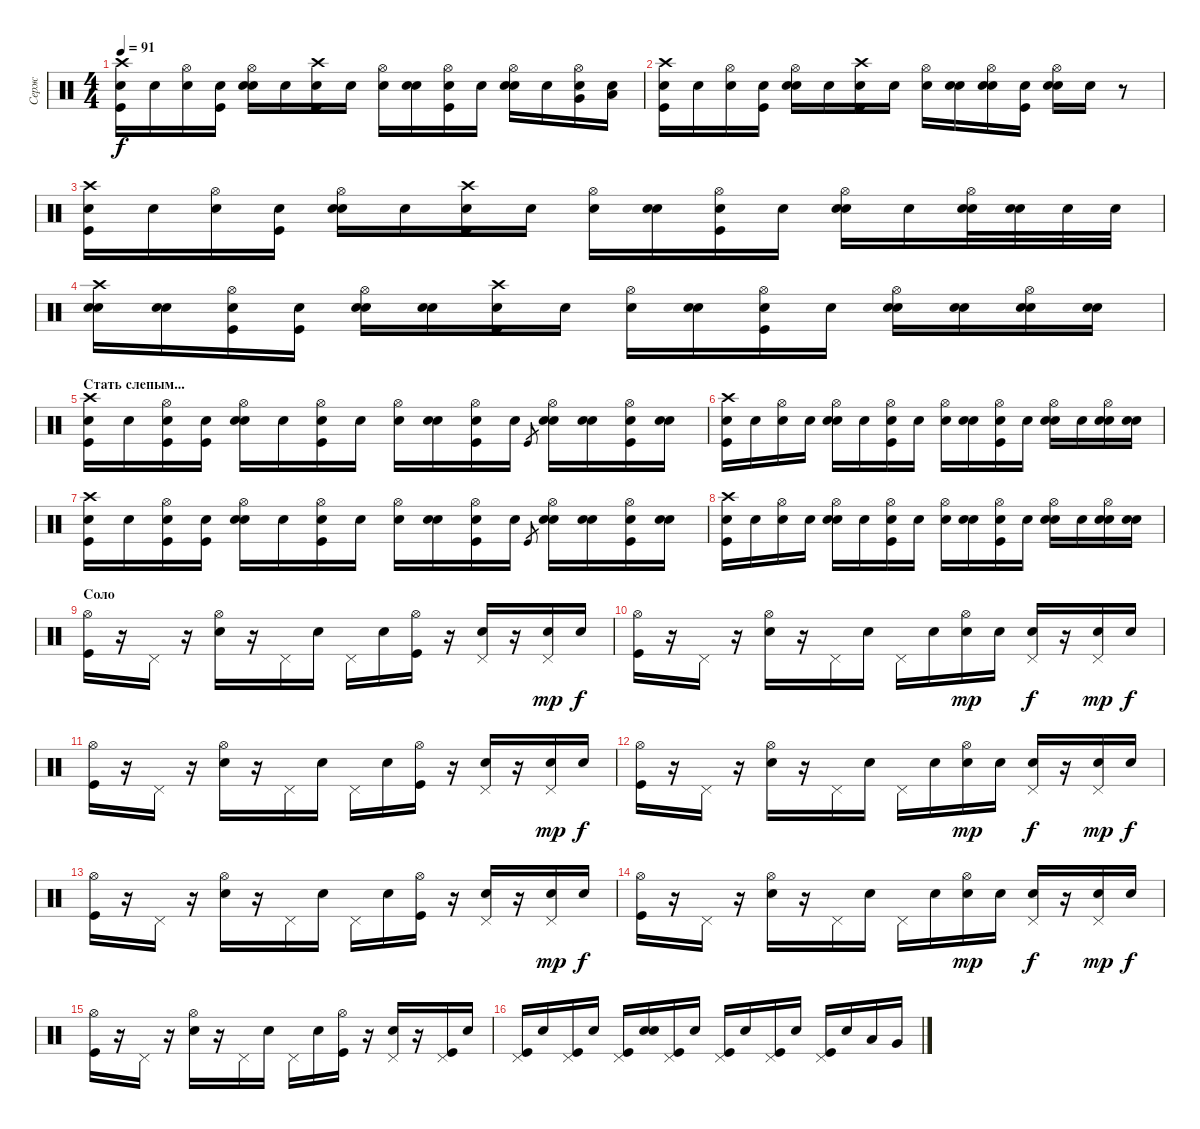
\track ("Серж" "Серж") {instrument percussion}
\staff {score}
\articulation defaults
\ts (4 4)
\tempo 91
\clef neutral
\ks c
("Crash high (hit)" "Kick (hit)" "Snare (hit)"{x}).16{dy f} "Snare (hit)"{x}.16 ("Hi-Hat (open)" "Snare (hit)"{x}).16 ("Kick (hit)" "Snare (hit)"{x}).16 ("Snare (hit) 2" "Hi-Hat (open)" "Snare (hit)"{x}).16 "Snare (hit)"{x}.16 ("Crash high (hit)" "Kick (hit)" "Snare (hit)"{x}).16 "Snare (hit)"{x}.16 ("Hi-Hat (open)" "Snare (hit)"{x}).16 ("Snare (hit) 2" "Snare (hit)"{x}).16 ("Kick (hit)" "Hi-Hat (open)" "Snare (hit)"{x}).16 "Snare (hit)"{x}.16 ("Snare (hit) 2" "Hi-Hat (open)" "Snare (hit)"{x}).16 "Snare (hit)"{x}.16 ("Very Low Tom (hit)" "Hi-Hat (open)" "Snare (hit)"{x}).16 ("Low Floor Tom (hit)" "Snare (hit)"{x}).16 |
("Crash high (hit)" "Kick (hit)" "Snare (hit)"{x}).16 "Snare (hit)"{x}.16 ("Hi-Hat (open)" "Snare (hit)"{x}).16 ("Kick (hit)" "Snare (hit)"{x}).16 ("Snare (hit) 2" "Hi-Hat (open)" "Snare (hit)"{x}).16 "Snare (hit)"{x}.16 ("Crash high (hit)" "Kick (hit)" "Snare (hit)"{x}).16 "Snare (hit)"{x}.16 ("Hi-Hat (open)" "Snare (hit)"{x}).16 ("Snare (hit) 2" "Snare (hit)"{x}).16 ("Snare (hit) 2" "Hi-Hat (open)" "Snare (hit)"{x}).16 ("Kick (hit)" "Snare (hit)"{x}).16 ("Snare (hit) 2" "Hi-Hat (open)" "Snare (hit)"{x}).16 "Snare (hit)"{x}.16 r.8 |
("Crash high (hit)" "Kick (hit)" "Snare (hit)"{x}).16 "Snare (hit)"{x}.16 ("Hi-Hat (open)" "Snare (hit)"{x}).16 ("Kick (hit)" "Snare (hit)"{x}).16 ("Snare (hit) 2" "Hi-Hat (open)" "Snare (hit)"{x}).16 "Snare (hit)"{x}.16 ("Crash high (hit)" "Kick (hit)" "Snare (hit)"{x}).16 "Snare (hit)"{x}.16 ("Hi-Hat (open)" "Snare (hit)"{x}).16 ("Snare (hit) 2" "Snare (hit)"{x}).16 ("Kick (hit)" "Hi-Hat (open)" "Snare (hit)"{x}).16 "Snare (hit)"{x}.16 ("Snare (hit) 2" "Hi-Hat (open)" "Snare (hit)"{x}).16 "Snare (hit)"{x}.16 ("Electric Snare (hit)" "Hi-Hat (open)" "Snare (hit)"{x}).32 ("Electric Snare (hit)" "Snare (hit)"{x}).32 "Electric Snare (hit)".32 "Electric Snare (hit)".32 |
("Crash high (hit)" "Electric Snare (hit)" "Snare (hit)"{x}).16 ("Electric Snare (hit)" "Snare (hit)"{x}).16 ("Kick (hit)" "Hi-Hat (open)" "Snare (hit)"{x}).16 ("Kick (hit)" "Snare (hit)"{x}).16 ("Snare (hit) 2" "Hi-Hat (open)" "Snare (hit)"{x}).16 ("Electric Snare (hit)" "Snare (hit)"{x}).16 ("Crash high (hit)" "Kick (hit)" "Snare (hit)"{x}).16 "Snare (hit)"{x}.16 ("Hi-Hat (open)" "Snare (hit)"{x}).16 ("Snare (hit) 2" "Snare (hit)"{x}).16 ("Kick (hit)" "Hi-Hat (open)" "Snare (hit)"{x}).16 "Snare (hit)"{x}.16 ("Snare (hit) 2" "Hi-Hat (open)" "Snare (hit)"{x}).16 ("Snare (hit) 2" "Snare (hit)"{x}).16 ("Snare (hit) 2" "Hi-Hat (open)" "Snare (hit)"{x}).16 ("Snare (hit) 2" "Snare (hit)"{x}).16 |
\section ("" "Стать слепым...")
("Crash high (hit)" "Kick (hit)" "Snare (hit)"{x}).16 "Snare (hit)"{x}.16 ("Kick (hit)" "Hi-Hat (open)" "Snare (hit)"{x}).16 ("Kick (hit)" "Snare (hit)"{x}).16 ("Snare (hit) 2" "Hi-Hat (open)" "Snare (hit)"{x}).16 "Snare (hit)"{x}.16 ("Kick (hit)" "Hi-Hat (open)" "Snare (hit)"{x}).16 "Snare (hit)"{x}.16 ("Hi-Hat (open)" "Snare (hit)"{x}).16 ("Snare (hit) 2" "Snare (hit)"{x}).16 ("Kick (hit)" "Hi-Hat (open)" "Snare (hit)"{x}).16 "Snare (hit)"{x}.16 "Kick (hit)".8{gr} ("Snare (hit) 2" "Hi-Hat (open)" "Snare (hit)"{x}).16 ("Snare (hit) 2" "Snare (hit)"{x}).16 ("Kick (hit)" "Hi-Hat (open)" "Snare (hit)"{x}).16 ("Snare (hit) 2" "Snare (hit)"{x}).16 |
("Crash high (hit)" "Kick (hit)" "Snare (hit)"{x}).16 "Snare (hit)"{x}.16 ("Hi-Hat (open)" "Snare (hit)"{x}).16 "Snare (hit)"{x}.16 ("Snare (hit) 2" "Hi-Hat (open)" "Snare (hit)"{x}).16 "Snare (hit)"{x}.16 ("Kick (hit)" "Hi-Hat (open)" "Snare (hit)"{x}).16 "Snare (hit)"{x}.16 ("Hi-Hat (open)" "Snare (hit)"{x}).16 ("Snare (hit) 2" "Snare (hit)"{x}).16 ("Kick (hit)" "Hi-Hat (open)" "Snare (hit)"{x}).16 "Snare (hit)"{x}.16 ("Snare (hit) 2" "Hi-Hat (open)" "Snare (hit)"{x}).16 "Snare (hit)"{x}.16 ("Snare (hit) 2" "Hi-Hat (open)" "Snare (hit)"{x}).16 ("Snare (hit) 2" "Snare (hit)"{x}).16 |
("Crash high (hit)" "Kick (hit)" "Snare (hit)"{x}).16 "Snare (hit)"{x}.16 ("Kick (hit)" "Hi-Hat (open)" "Snare (hit)"{x}).16 ("Kick (hit)" "Snare (hit)"{x}).16 ("Snare (hit) 2" "Hi-Hat (open)" "Snare (hit)"{x}).16 "Snare (hit)"{x}.16 ("Kick (hit)" "Hi-Hat (open)" "Snare (hit)"{x}).16 "Snare (hit)"{x}.16 ("Hi-Hat (open)" "Snare (hit)"{x}).16 ("Snare (hit) 2" "Snare (hit)"{x}).16 ("Kick (hit)" "Hi-Hat (open)" "Snare (hit)"{x}).16 "Snare (hit)"{x}.16 "Kick (hit)".8{gr} ("Snare (hit) 2" "Hi-Hat (open)" "Snare (hit)"{x}).16 ("Snare (hit) 2" "Snare (hit)"{x}).16 ("Kick (hit)" "Hi-Hat (open)" "Snare (hit)"{x}).16 ("Snare (hit) 2" "Snare (hit)"{x}).16 |
("Crash high (hit)" "Kick (hit)" "Snare (hit)"{x}).16 "Snare (hit)"{x}.16 ("Hi-Hat (open)" "Snare (hit)"{x}).16 "Snare (hit)"{x}.16 ("Snare (hit) 2" "Hi-Hat (open)" "Snare (hit)"{x}).16 "Snare (hit)"{x}.16 ("Kick (hit)" "Hi-Hat (open)" "Snare (hit)"{x}).16 "Snare (hit)"{x}.16 ("Hi-Hat (open)" "Snare (hit)"{x}).16 ("Snare (hit) 2" "Snare (hit)"{x}).16 ("Kick (hit)" "Hi-Hat (open)" "Snare (hit)"{x}).16 "Snare (hit)"{x}.16 ("Snare (hit) 2" "Hi-Hat (open)" "Snare (hit)"{x}).16 "Snare (hit)"{x}.16 ("Snare (hit) 2" "Hi-Hat (open)" "Snare (hit)"{x}).16 ("Snare (hit) 2" "Snare (hit)"{x}).16 |
\section ("" "Соло")
("Kick (hit)" "Hi-Hat (open)").16 r.16 "Pedal Hi-Hat (hit)".16 r.16 ("Snare (hit) 2" "Hi-Hat (open)").16 r.16 "Pedal Hi-Hat (hit)".16 "Snare (hit) 2".16 "Pedal Hi-Hat (hit)".16 "Snare (hit) 2".16 ("Kick (hit)" "Hi-Hat (open)").16 r.16 ("Snare (hit) 2" "Pedal Hi-Hat (hit)").16 r.16 ("Snare (hit) 2" "Pedal Hi-Hat (hit)").16{dy mp} "Snare (hit) 2".16{dy f} |
("Kick (hit)" "Hi-Hat (open)").16 r.16 "Pedal Hi-Hat (hit)".16 r.16 ("Snare (hit) 2" "Hi-Hat (open)").16 r.16 "Pedal Hi-Hat (hit)".16 "Snare (hit) 2".16 "Pedal Hi-Hat (hit)".16 "Snare (hit) 2".16 ("Snare (hit) 2" "Hi-Hat (open)").16{dy mp} "Snare (hit) 2".16 ("Snare (hit) 2" "Pedal Hi-Hat (hit)").16{dy f} r.16 ("Snare (hit) 2" "Pedal Hi-Hat (hit)").16{dy mp} "Snare (hit) 2".16{dy f} |
("Kick (hit)" "Hi-Hat (open)").16 r.16 "Pedal Hi-Hat (hit)".16 r.16 ("Snare (hit) 2" "Hi-Hat (open)").16 r.16 "Pedal Hi-Hat (hit)".16 "Snare (hit) 2".16 "Pedal Hi-Hat (hit)".16 "Snare (hit) 2".16 ("Kick (hit)" "Hi-Hat (open)").16 r.16 ("Snare (hit) 2" "Pedal Hi-Hat (hit)").16 r.16 ("Snare (hit) 2" "Pedal Hi-Hat (hit)").16{dy mp} "Snare (hit) 2".16{dy f} |
("Kick (hit)" "Hi-Hat (open)").16 r.16 "Pedal Hi-Hat (hit)".16 r.16 ("Snare (hit) 2" "Hi-Hat (open)").16 r.16 "Pedal Hi-Hat (hit)".16 "Snare (hit) 2".16 "Pedal Hi-Hat (hit)".16 "Snare (hit) 2".16 ("Snare (hit) 2" "Hi-Hat (open)").16{dy mp} "Snare (hit) 2".16 ("Snare (hit) 2" "Pedal Hi-Hat (hit)").16{dy f} r.16 ("Snare (hit) 2" "Pedal Hi-Hat (hit)").16{dy mp} "Snare (hit) 2".16{dy f} |
("Kick (hit)" "Hi-Hat (open)").16 r.16 "Pedal Hi-Hat (hit)".16 r.16 ("Snare (hit) 2" "Hi-Hat (open)").16 r.16 "Pedal Hi-Hat (hit)".16 "Snare (hit) 2".16 "Pedal Hi-Hat (hit)".16 "Snare (hit) 2".16 ("Kick (hit)" "Hi-Hat (open)").16 r.16 ("Snare (hit) 2" "Pedal Hi-Hat (hit)").16 r.16 ("Snare (hit) 2" "Pedal Hi-Hat (hit)").16{dy mp} "Snare (hit) 2".16{dy f} |
("Kick (hit)" "Hi-Hat (open)").16 r.16 "Pedal Hi-Hat (hit)".16 r.16 ("Snare (hit) 2" "Hi-Hat (open)").16 r.16 "Pedal Hi-Hat (hit)".16 "Snare (hit) 2".16 "Pedal Hi-Hat (hit)".16 "Snare (hit) 2".16 ("Snare (hit) 2" "Hi-Hat (open)").16{dy mp} "Snare (hit) 2".16 ("Snare (hit) 2" "Pedal Hi-Hat (hit)").16{dy f} r.16 ("Snare (hit) 2" "Pedal Hi-Hat (hit)").16{dy mp} "Snare (hit) 2".16{dy f} |
("Kick (hit)" "Hi-Hat (open)").16 r.16 "Pedal Hi-Hat (hit)".16 r.16 ("Snare (hit) 2" "Hi-Hat (open)").16 r.16 "Pedal Hi-Hat (hit)".16 "Snare (hit) 2".16 "Pedal Hi-Hat (hit)".16 "Snare (hit) 2".16 ("Kick (hit)" "Hi-Hat (open)").16 r.16 ("Snare (hit) 2" "Pedal Hi-Hat (hit)").16 r.16 ("Kick (hit)" "Pedal Hi-Hat (hit)").16 "Snare (hit) 2".16 |
("Kick (hit)" "Pedal Hi-Hat (hit)").16 "Snare (hit)"{x}.16 ("Kick (hit)" "Pedal Hi-Hat (hit)").16 "Snare (hit)"{x}.16 ("Kick (hit)" "Pedal Hi-Hat (hit)").16 ("Snare (hit) 2" "Snare (hit)"{x}).16 ("Kick (hit)" "Pedal Hi-Hat (hit)").16 "Snare (hit)"{x}.16 ("Kick (hit)" "Pedal Hi-Hat (hit)").16 "Snare (hit)"{x}.16 ("Kick (hit)" "Pedal Hi-Hat (hit)").16 "Snare (hit) 2".16 ("Kick (hit)" "Pedal Hi-Hat (hit)").16 "Snare (hit) 2".16 "Low Tom (hit)".16 "Very Low Tom (hit)".16
